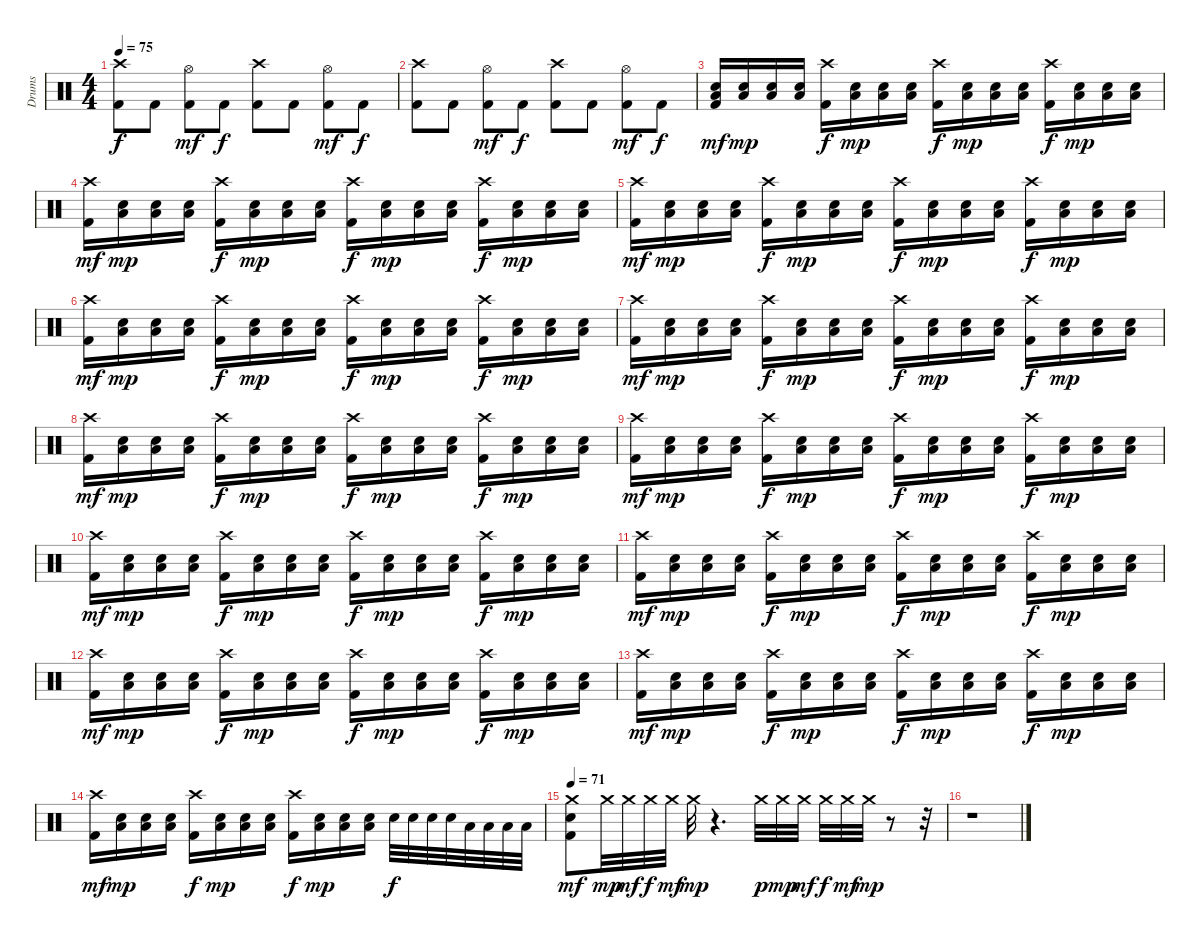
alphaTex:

\track ("Drums" "Drums") {instrument percussion}
\staff {score}
\articulation defaults
\ts (4 4)
\tempo 75
\clef neutral
\ks c
("Crash high (hit)" "Kick (hit) 2").8{dy f} "Kick (hit) 2".8 ("Hi-Hat (open)" "Kick (hit) 2").8{dy mf} "Kick (hit) 2".8{dy f} ("Crash high (hit)" "Kick (hit) 2").8 "Kick (hit) 2".8 ("Hi-Hat (open)" "Kick (hit) 2").8{dy mf} "Kick (hit) 2".8{dy f} |
("Crash high (hit)" "Kick (hit) 2").8 "Kick (hit) 2".8 ("Hi-Hat (open)" "Kick (hit) 2").8{dy mf} "Kick (hit) 2".8{dy f} ("Crash high (hit)" "Kick (hit) 2").8 "Kick (hit) 2".8 ("Hi-Hat (open)" "Kick (hit) 2").8{dy mf} "Kick (hit) 2".8{dy f} |
("Low Tom (hit)" "Electric Snare (hit)" "Kick (hit) 2").16{dy mf} ("Low Tom (hit)" "Electric Snare (hit)").16{dy mp} ("Low Tom (hit)" "Electric Snare (hit)").16 ("Low Tom (hit)" "Electric Snare (hit)").16 ("Crash high (hit)" "Kick (hit) 2").16{dy f} ("Low Tom (hit)" "Electric Snare (hit)").16{dy mp} ("Low Tom (hit)" "Electric Snare (hit)").16 ("Low Tom (hit)" "Electric Snare (hit)").16 ("Crash high (hit)" "Kick (hit) 2").16{dy f} ("Low Tom (hit)" "Electric Snare (hit)").16{dy mp} ("Low Tom (hit)" "Electric Snare (hit)").16 ("Low Tom (hit)" "Electric Snare (hit)").16 ("Crash high (hit)" "Kick (hit) 2").16{dy f} ("Low Tom (hit)" "Electric Snare (hit)").16{dy mp} ("Low Tom (hit)" "Electric Snare (hit)").16 ("Low Tom (hit)" "Electric Snare (hit)").16 |
("Crash high (hit)" "Kick (hit) 2").16{dy mf} ("Low Tom (hit)" "Electric Snare (hit)").16{dy mp} ("Low Tom (hit)" "Electric Snare (hit)").16 ("Low Tom (hit)" "Electric Snare (hit)").16 ("Crash high (hit)" "Kick (hit) 2").16{dy f} ("Low Tom (hit)" "Electric Snare (hit)").16{dy mp} ("Low Tom (hit)" "Electric Snare (hit)").16 ("Low Tom (hit)" "Electric Snare (hit)").16 ("Crash high (hit)" "Kick (hit) 2").16{dy f} ("Low Tom (hit)" "Electric Snare (hit)").16{dy mp} ("Low Tom (hit)" "Electric Snare (hit)").16 ("Low Tom (hit)" "Electric Snare (hit)").16 ("Crash high (hit)" "Kick (hit) 2").16{dy f} ("Low Tom (hit)" "Electric Snare (hit)").16{dy mp} ("Low Tom (hit)" "Electric Snare (hit)").16 ("Low Tom (hit)" "Electric Snare (hit)").16 |
("Crash high (hit)" "Kick (hit) 2").16{dy mf} ("Low Tom (hit)" "Electric Snare (hit)").16{dy mp} ("Low Tom (hit)" "Electric Snare (hit)").16 ("Low Tom (hit)" "Electric Snare (hit)").16 ("Crash high (hit)" "Kick (hit) 2").16{dy f} ("Low Tom (hit)" "Electric Snare (hit)").16{dy mp} ("Low Tom (hit)" "Electric Snare (hit)").16 ("Low Tom (hit)" "Electric Snare (hit)").16 ("Crash high (hit)" "Kick (hit) 2").16{dy f} ("Low Tom (hit)" "Electric Snare (hit)").16{dy mp} ("Low Tom (hit)" "Electric Snare (hit)").16 ("Low Tom (hit)" "Electric Snare (hit)").16 ("Crash high (hit)" "Kick (hit) 2").16{dy f} ("Low Tom (hit)" "Electric Snare (hit)").16{dy mp} ("Low Tom (hit)" "Electric Snare (hit)").16 ("Low Tom (hit)" "Electric Snare (hit)").16 |
("Crash high (hit)" "Kick (hit) 2").16{dy mf} ("Low Tom (hit)" "Electric Snare (hit)").16{dy mp} ("Low Tom (hit)" "Electric Snare (hit)").16 ("Low Tom (hit)" "Electric Snare (hit)").16 ("Crash high (hit)" "Kick (hit) 2").16{dy f} ("Low Tom (hit)" "Electric Snare (hit)").16{dy mp} ("Low Tom (hit)" "Electric Snare (hit)").16 ("Low Tom (hit)" "Electric Snare (hit)").16 ("Crash high (hit)" "Kick (hit) 2").16{dy f} ("Low Tom (hit)" "Electric Snare (hit)").16{dy mp} ("Low Tom (hit)" "Electric Snare (hit)").16 ("Low Tom (hit)" "Electric Snare (hit)").16 ("Crash high (hit)" "Kick (hit) 2").16{dy f} ("Low Tom (hit)" "Electric Snare (hit)").16{dy mp} ("Low Tom (hit)" "Electric Snare (hit)").16 ("Low Tom (hit)" "Electric Snare (hit)").16 |
("Crash high (hit)" "Kick (hit) 2").16{dy mf} ("Low Tom (hit)" "Electric Snare (hit)").16{dy mp} ("Low Tom (hit)" "Electric Snare (hit)").16 ("Low Tom (hit)" "Electric Snare (hit)").16 ("Crash high (hit)" "Kick (hit) 2").16{dy f} ("Low Tom (hit)" "Electric Snare (hit)").16{dy mp} ("Low Tom (hit)" "Electric Snare (hit)").16 ("Low Tom (hit)" "Electric Snare (hit)").16 ("Crash high (hit)" "Kick (hit) 2").16{dy f} ("Low Tom (hit)" "Electric Snare (hit)").16{dy mp} ("Low Tom (hit)" "Electric Snare (hit)").16 ("Low Tom (hit)" "Electric Snare (hit)").16 ("Crash high (hit)" "Kick (hit) 2").16{dy f} ("Low Tom (hit)" "Electric Snare (hit)").16{dy mp} ("Low Tom (hit)" "Electric Snare (hit)").16 ("Low Tom (hit)" "Electric Snare (hit)").16 |
("Crash high (hit)" "Kick (hit) 2").16{dy mf} ("Low Tom (hit)" "Electric Snare (hit)").16{dy mp} ("Low Tom (hit)" "Electric Snare (hit)").16 ("Low Tom (hit)" "Electric Snare (hit)").16 ("Crash high (hit)" "Kick (hit) 2").16{dy f} ("Low Tom (hit)" "Electric Snare (hit)").16{dy mp} ("Low Tom (hit)" "Electric Snare (hit)").16 ("Low Tom (hit)" "Electric Snare (hit)").16 ("Crash high (hit)" "Kick (hit) 2").16{dy f} ("Low Tom (hit)" "Electric Snare (hit)").16{dy mp} ("Low Tom (hit)" "Electric Snare (hit)").16 ("Low Tom (hit)" "Electric Snare (hit)").16 ("Crash high (hit)" "Kick (hit) 2").16{dy f} ("Low Tom (hit)" "Electric Snare (hit)").16{dy mp} ("Low Tom (hit)" "Electric Snare (hit)").16 ("Low Tom (hit)" "Electric Snare (hit)").16 |
("Crash high (hit)" "Kick (hit) 2").16{dy mf} ("Low Tom (hit)" "Electric Snare (hit)").16{dy mp} ("Low Tom (hit)" "Electric Snare (hit)").16 ("Low Tom (hit)" "Electric Snare (hit)").16 ("Crash high (hit)" "Kick (hit) 2").16{dy f} ("Low Tom (hit)" "Electric Snare (hit)").16{dy mp} ("Low Tom (hit)" "Electric Snare (hit)").16 ("Low Tom (hit)" "Electric Snare (hit)").16 ("Crash high (hit)" "Kick (hit) 2").16{dy f} ("Low Tom (hit)" "Electric Snare (hit)").16{dy mp} ("Low Tom (hit)" "Electric Snare (hit)").16 ("Low Tom (hit)" "Electric Snare (hit)").16 ("Crash high (hit)" "Kick (hit) 2").16{dy f} ("Low Tom (hit)" "Electric Snare (hit)").16{dy mp} ("Low Tom (hit)" "Electric Snare (hit)").16 ("Low Tom (hit)" "Electric Snare (hit)").16 |
("Crash high (hit)" "Kick (hit) 2").16{dy mf} ("Low Tom (hit)" "Electric Snare (hit)").16{dy mp} ("Low Tom (hit)" "Electric Snare (hit)").16 ("Low Tom (hit)" "Electric Snare (hit)").16 ("Crash high (hit)" "Kick (hit) 2").16{dy f} ("Low Tom (hit)" "Electric Snare (hit)").16{dy mp} ("Low Tom (hit)" "Electric Snare (hit)").16 ("Low Tom (hit)" "Electric Snare (hit)").16 ("Crash high (hit)" "Kick (hit) 2").16{dy f} ("Low Tom (hit)" "Electric Snare (hit)").16{dy mp} ("Low Tom (hit)" "Electric Snare (hit)").16 ("Low Tom (hit)" "Electric Snare (hit)").16 ("Crash high (hit)" "Kick (hit) 2").16{dy f} ("Low Tom (hit)" "Electric Snare (hit)").16{dy mp} ("Low Tom (hit)" "Electric Snare (hit)").16 ("Low Tom (hit)" "Electric Snare (hit)").16 |
("Crash high (hit)" "Kick (hit) 2").16{dy mf} ("Low Tom (hit)" "Electric Snare (hit)").16{dy mp} ("Low Tom (hit)" "Electric Snare (hit)").16 ("Low Tom (hit)" "Electric Snare (hit)").16 ("Crash high (hit)" "Kick (hit) 2").16{dy f} ("Low Tom (hit)" "Electric Snare (hit)").16{dy mp} ("Low Tom (hit)" "Electric Snare (hit)").16 ("Low Tom (hit)" "Electric Snare (hit)").16 ("Crash high (hit)" "Kick (hit) 2").16{dy f} ("Low Tom (hit)" "Electric Snare (hit)").16{dy mp} ("Low Tom (hit)" "Electric Snare (hit)").16 ("Low Tom (hit)" "Electric Snare (hit)").16 ("Crash high (hit)" "Kick (hit) 2").16{dy f} ("Low Tom (hit)" "Electric Snare (hit)").16{dy mp} ("Low Tom (hit)" "Electric Snare (hit)").16 ("Low Tom (hit)" "Electric Snare (hit)").16 |
("Crash high (hit)" "Kick (hit) 2").16{dy mf} ("Low Tom (hit)" "Electric Snare (hit)").16{dy mp} ("Low Tom (hit)" "Electric Snare (hit)").16 ("Low Tom (hit)" "Electric Snare (hit)").16 ("Crash high (hit)" "Kick (hit) 2").16{dy f} ("Low Tom (hit)" "Electric Snare (hit)").16{dy mp} ("Low Tom (hit)" "Electric Snare (hit)").16 ("Low Tom (hit)" "Electric Snare (hit)").16 ("Crash high (hit)" "Kick (hit) 2").16{dy f} ("Low Tom (hit)" "Electric Snare (hit)").16{dy mp} ("Low Tom (hit)" "Electric Snare (hit)").16 ("Low Tom (hit)" "Electric Snare (hit)").16 ("Crash high (hit)" "Kick (hit) 2").16{dy f} ("Low Tom (hit)" "Electric Snare (hit)").16{dy mp} ("Low Tom (hit)" "Electric Snare (hit)").16 ("Low Tom (hit)" "Electric Snare (hit)").16 |
("Crash high (hit)" "Kick (hit) 2").16{dy mf} ("Low Tom (hit)" "Electric Snare (hit)").16{dy mp} ("Low Tom (hit)" "Electric Snare (hit)").16 ("Low Tom (hit)" "Electric Snare (hit)").16 ("Crash high (hit)" "Kick (hit) 2").16{dy f} ("Low Tom (hit)" "Electric Snare (hit)").16{dy mp} ("Low Tom (hit)" "Electric Snare (hit)").16 ("Low Tom (hit)" "Electric Snare (hit)").16 ("Crash high (hit)" "Kick (hit) 2").16{dy f} ("Low Tom (hit)" "Electric Snare (hit)").16{dy mp} ("Low Tom (hit)" "Electric Snare (hit)").16 ("Low Tom (hit)" "Electric Snare (hit)").16 ("Crash high (hit)" "Kick (hit) 2").16{dy f} ("Low Tom (hit)" "Electric Snare (hit)").16{dy mp} ("Low Tom (hit)" "Electric Snare (hit)").16 ("Low Tom (hit)" "Electric Snare (hit)").16 |
("Crash high (hit)" "Kick (hit) 2").16{dy mf} ("Low Tom (hit)" "Electric Snare (hit)").16{dy mp} ("Low Tom (hit)" "Electric Snare (hit)").16 ("Low Tom (hit)" "Electric Snare (hit)").16 ("Crash high (hit)" "Kick (hit) 2").16{dy f} ("Low Tom (hit)" "Electric Snare (hit)").16{dy mp} ("Low Tom (hit)" "Electric Snare (hit)").16 ("Low Tom (hit)" "Electric Snare (hit)").16 ("Crash high (hit)" "Kick (hit) 2").16{dy f} ("Low Tom (hit)" "Electric Snare (hit)").16{dy mp} ("Low Tom (hit)" "Electric Snare (hit)").16 ("Low Tom (hit)" "Electric Snare (hit)").16 "Electric Snare (hit)".32{dy f} "Electric Snare (hit)".32 "Electric Snare (hit)".32 "Electric Snare (hit)".32 "Low Tom (hit)".32 "Low Tom (hit)".32 "Low Tom (hit)".32 "Low Tom (hit)".32 |
\tempo 71
("Crash medium (hit)" "Electric Snare (hit)" "Kick (hit) 2").8{dy mf} "Crash medium (hit)".32{dy mp} "Crash medium (hit)".32{dy mf} "Crash medium (hit)".32{dy f} "Crash medium (hit)".32{dy mf} "Crash medium (hit)".32{dy mp} r.4{d} "Crash medium (hit)".32{dy p} "Crash medium (hit)".32{dy mp} "Crash medium (hit)".32{dy mf} "Crash medium (hit)".32{dy f} "Crash medium (hit)".32{dy mf} "Crash medium (hit)".32{dy mp} r.8 r.32 |
r.1
